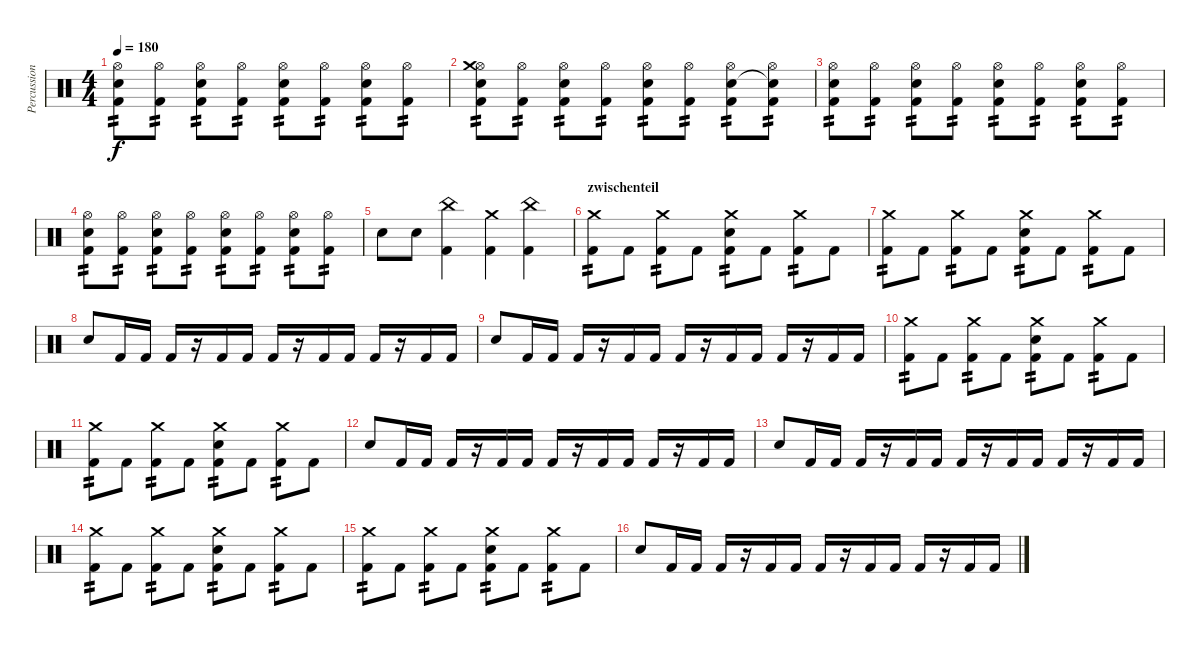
\track ("Percussion" "Percussion") {instrument percussion}
\staff {score}
\articulation defaults
\ts (4 4)
\tempo 180
\clef neutral
\ks c
("Hi-Hat (open)" "Electric Snare (hit)" "Kick (hit) 2").8{tp 2 dy f} ("Hi-Hat (open)" "Kick (hit) 2").8{tp 2} ("Hi-Hat (open)" "Electric Snare (hit)" "Kick (hit) 2").8{tp 2} ("Hi-Hat (open)" "Kick (hit) 2").8{tp 2} ("Hi-Hat (open)" "Electric Snare (hit)" "Kick (hit) 2").8{tp 2} ("Hi-Hat (open)" "Kick (hit) 2").8{tp 2} ("Hi-Hat (open)" "Electric Snare (hit)" "Kick (hit) 2").8{tp 2} ("Hi-Hat (open)" "Kick (hit) 2").8{tp 2} |
("Hi-Hat (open)" "Crash medium (hit)" "Electric Snare (hit)" "Kick (hit) 2").8{tp 2} ("Hi-Hat (open)" "Kick (hit) 2").8{tp 2} ("Hi-Hat (open)" "Electric Snare (hit)" "Kick (hit) 2").8{tp 2} ("Hi-Hat (open)" "Kick (hit) 2").8{tp 2} ("Hi-Hat (open)" "Electric Snare (hit)" "Kick (hit) 2").8{tp 2} ("Hi-Hat (open)" "Kick (hit) 2").8{tp 2} ("Hi-Hat (open)" "Electric Snare (hit)" "Kick (hit) 2").8{tp 2} ("Hi-Hat (open)" "Snare (hit)"{t} "Kick (hit) 2").8{tp 2} |
("Hi-Hat (open)" "Electric Snare (hit)" "Kick (hit) 2").8{tp 2} ("Hi-Hat (open)" "Kick (hit) 2").8{tp 2} ("Hi-Hat (open)" "Electric Snare (hit)" "Kick (hit) 2").8{tp 2} ("Hi-Hat (open)" "Kick (hit) 2").8{tp 2} ("Hi-Hat (open)" "Electric Snare (hit)" "Kick (hit) 2").8{tp 2} ("Hi-Hat (open)" "Kick (hit) 2").8{tp 2} ("Hi-Hat (open)" "Electric Snare (hit)" "Kick (hit) 2").8{tp 2} ("Hi-Hat (open)" "Kick (hit) 2").8{tp 2} |
("Hi-Hat (open)" "Electric Snare (hit)" "Kick (hit) 2").8{tp 2} ("Hi-Hat (open)" "Kick (hit) 2").8{tp 2} ("Hi-Hat (open)" "Electric Snare (hit)" "Kick (hit) 2").8{tp 2} ("Hi-Hat (open)" "Kick (hit) 2").8{tp 2} ("Hi-Hat (open)" "Electric Snare (hit)" "Kick (hit) 2").8{tp 2} ("Hi-Hat (open)" "Kick (hit) 2").8{tp 2} ("Hi-Hat (open)" "Electric Snare (hit)" "Kick (hit) 2").8{tp 2} ("Hi-Hat (open)" "Kick (hit) 2").8{tp 2} |
"Electric Snare (hit)".8 "Electric Snare (hit)".8 ("China (hit)" "Kick (hit) 2").4 ("Crash medium (hit)" "Kick (hit) 2").4 ("China (hit)" "Kick (hit) 2").4 |
\section ("" "zwischenteil")
("Crash medium (hit)" "Kick (hit) 2").8{tp 2} "Kick (hit) 2".8 ("Crash medium (hit)" "Kick (hit) 2").8{tp 2} "Kick (hit) 2".8 ("Crash medium (hit)" "Electric Snare (hit)" "Kick (hit) 2").8{tp 2} "Kick (hit) 2".8 ("Crash medium (hit)" "Kick (hit) 2").8{tp 2} "Kick (hit) 2".8 |
("Crash medium (hit)" "Kick (hit) 2").8{tp 2} "Kick (hit) 2".8 ("Crash medium (hit)" "Kick (hit) 2").8{tp 2} "Kick (hit) 2".8 ("Crash medium (hit)" "Electric Snare (hit)" "Kick (hit) 2").8{tp 2} "Kick (hit) 2".8 ("Crash medium (hit)" "Kick (hit) 2").8{tp 2} "Kick (hit) 2".8 |
\section ("" "")
"Electric Snare (hit)".8 "Kick (hit) 2".16 "Kick (hit) 2".16 "Kick (hit) 2".16 r.16 "Kick (hit) 2".16 "Kick (hit) 2".16 "Kick (hit) 2".16 r.16 "Kick (hit) 2".16 "Kick (hit) 2".16 "Kick (hit) 2".16 r.16 "Kick (hit) 2".16 "Kick (hit) 2".16 |
"Electric Snare (hit)".8 "Kick (hit) 2".16 "Kick (hit) 2".16 "Kick (hit) 2".16 r.16 "Kick (hit) 2".16 "Kick (hit) 2".16 "Kick (hit) 2".16 r.16 "Kick (hit) 2".16 "Kick (hit) 2".16 "Kick (hit) 2".16 r.16 "Kick (hit) 2".16 "Kick (hit) 2".16 |
("Crash medium (hit)" "Kick (hit) 2").8{tp 2} "Kick (hit) 2".8 ("Crash medium (hit)" "Kick (hit) 2").8{tp 2} "Kick (hit) 2".8 ("Crash medium (hit)" "Electric Snare (hit)" "Kick (hit) 2").8{tp 2} "Kick (hit) 2".8 ("Crash medium (hit)" "Kick (hit) 2").8{tp 2} "Kick (hit) 2".8 |
("Crash medium (hit)" "Kick (hit) 2").8{tp 2} "Kick (hit) 2".8 ("Crash medium (hit)" "Kick (hit) 2").8{tp 2} "Kick (hit) 2".8 ("Crash medium (hit)" "Electric Snare (hit)" "Kick (hit) 2").8{tp 2} "Kick (hit) 2".8 ("Crash medium (hit)" "Kick (hit) 2").8{tp 2} "Kick (hit) 2".8 |
"Electric Snare (hit)".8 "Kick (hit) 2".16 "Kick (hit) 2".16 "Kick (hit) 2".16 r.16 "Kick (hit) 2".16 "Kick (hit) 2".16 "Kick (hit) 2".16 r.16 "Kick (hit) 2".16 "Kick (hit) 2".16 "Kick (hit) 2".16 r.16 "Kick (hit) 2".16 "Kick (hit) 2".16 |
"Electric Snare (hit)".8 "Kick (hit) 2".16 "Kick (hit) 2".16 "Kick (hit) 2".16 r.16 "Kick (hit) 2".16 "Kick (hit) 2".16 "Kick (hit) 2".16 r.16 "Kick (hit) 2".16 "Kick (hit) 2".16 "Kick (hit) 2".16 r.16 "Kick (hit) 2".16 "Kick (hit) 2".16 |
("Crash medium (hit)" "Kick (hit) 2").8{tp 2} "Kick (hit) 2".8 ("Crash medium (hit)" "Kick (hit) 2").8{tp 2} "Kick (hit) 2".8 ("Crash medium (hit)" "Electric Snare (hit)" "Kick (hit) 2").8{tp 2} "Kick (hit) 2".8 ("Crash medium (hit)" "Kick (hit) 2").8{tp 2} "Kick (hit) 2".8 |
("Crash medium (hit)" "Kick (hit) 2").8{tp 2} "Kick (hit) 2".8 ("Crash medium (hit)" "Kick (hit) 2").8{tp 2} "Kick (hit) 2".8 ("Crash medium (hit)" "Electric Snare (hit)" "Kick (hit) 2").8{tp 2} "Kick (hit) 2".8 ("Crash medium (hit)" "Kick (hit) 2").8{tp 2} "Kick (hit) 2".8 |
"Electric Snare (hit)".8 "Kick (hit) 2".16 "Kick (hit) 2".16 "Kick (hit) 2".16 r.16 "Kick (hit) 2".16 "Kick (hit) 2".16 "Kick (hit) 2".16 r.16 "Kick (hit) 2".16 "Kick (hit) 2".16 "Kick (hit) 2".16 r.16 "Kick (hit) 2".16 "Kick (hit) 2".16
